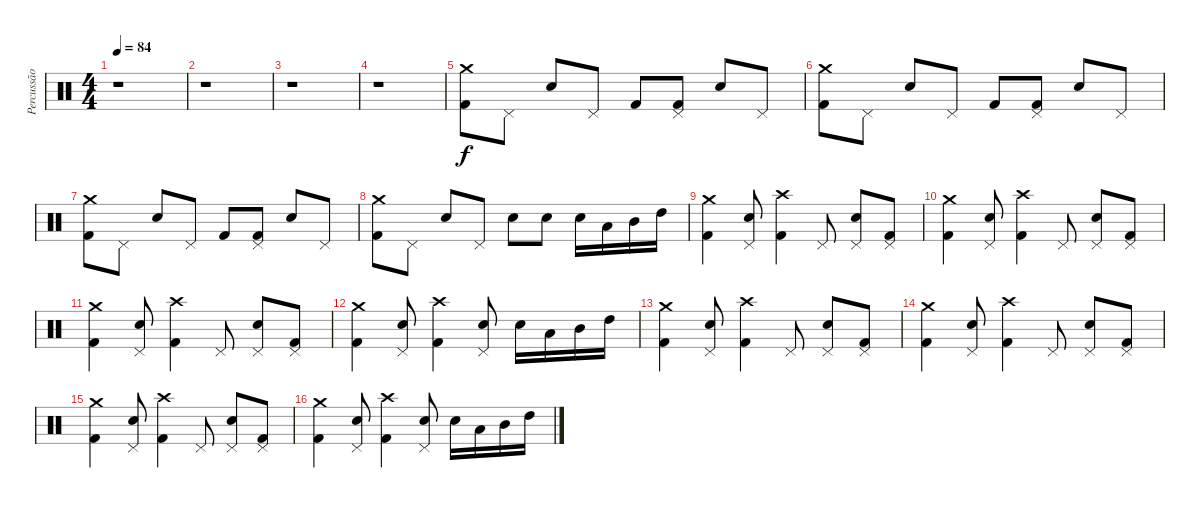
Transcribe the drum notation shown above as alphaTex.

\track ("Percussão" "Percussão") {instrument percussion}
\staff {score}
\articulation defaults
\ts (4 4)
\tempo 84
\clef neutral
\ks c
r.1{dy f} |
r.1 |
r.1 |
r.1 |
("Crash medium (hit)" "Kick (hit) 2").8 "Pedal Hi-Hat (hit)".8 "Snare (hit) 2".8 "Pedal Hi-Hat (hit)".8 "Kick (hit) 2".8 ("Pedal Hi-Hat (hit)" "Kick (hit) 2").8 "Snare (hit) 2".8 "Pedal Hi-Hat (hit)".8 |
("Crash medium (hit)" "Kick (hit) 2").8 "Pedal Hi-Hat (hit)".8 "Snare (hit) 2".8 "Pedal Hi-Hat (hit)".8 "Kick (hit) 2".8 ("Pedal Hi-Hat (hit)" "Kick (hit) 2").8 "Snare (hit) 2".8 "Pedal Hi-Hat (hit)".8 |
("Crash medium (hit)" "Kick (hit) 2").8 "Pedal Hi-Hat (hit)".8 "Snare (hit) 2".8 "Pedal Hi-Hat (hit)".8 "Kick (hit) 2".8 ("Pedal Hi-Hat (hit)" "Kick (hit) 2").8 "Snare (hit) 2".8 "Pedal Hi-Hat (hit)".8 |
("Crash medium (hit)" "Kick (hit) 2").8 "Pedal Hi-Hat (hit)".8 "Snare (hit) 2".8 "Pedal Hi-Hat (hit)".8 "Electric Snare (hit)".8 "Electric Snare (hit)".8 "Electric Snare (hit)".16 "Low Tom (hit)".16 "Mid Tom (hit)".16 "High Tom (hit)".16 |
("Crash medium (hit)" "Kick (hit) 2").4 ("Pedal Hi-Hat (hit)" "Snare (hit) 2").8 ("Crash high (hit)" "Kick (hit) 2").4 "Pedal Hi-Hat (hit)".8 ("Pedal Hi-Hat (hit)" "Snare (hit) 2").8 ("Pedal Hi-Hat (hit)" "Kick (hit) 2").8 |
("Crash medium (hit)" "Kick (hit) 2").4 ("Pedal Hi-Hat (hit)" "Snare (hit) 2").8 ("Crash high (hit)" "Kick (hit) 2").4 "Pedal Hi-Hat (hit)".8 ("Pedal Hi-Hat (hit)" "Snare (hit) 2").8 ("Pedal Hi-Hat (hit)" "Kick (hit) 2").8 |
("Crash medium (hit)" "Kick (hit) 2").4 ("Pedal Hi-Hat (hit)" "Snare (hit) 2").8 ("Crash high (hit)" "Kick (hit) 2").4 "Pedal Hi-Hat (hit)".8 ("Pedal Hi-Hat (hit)" "Snare (hit) 2").8 ("Pedal Hi-Hat (hit)" "Kick (hit) 2").8 |
("Crash medium (hit)" "Kick (hit) 2").4 ("Pedal Hi-Hat (hit)" "Snare (hit) 2").8 ("Crash high (hit)" "Kick (hit) 2").4 ("Pedal Hi-Hat (hit)" "Snare (hit) 2").8 "Snare (hit) 2".16 "Low Tom (hit)".16 "Mid Tom (hit)".16 "High Tom (hit)".16 |
("Crash medium (hit)" "Kick (hit) 2").4 ("Pedal Hi-Hat (hit)" "Snare (hit) 2").8 ("Crash high (hit)" "Kick (hit) 2").4 "Pedal Hi-Hat (hit)".8 ("Pedal Hi-Hat (hit)" "Snare (hit) 2").8 ("Pedal Hi-Hat (hit)" "Kick (hit) 2").8 |
("Crash medium (hit)" "Kick (hit) 2").4 ("Pedal Hi-Hat (hit)" "Snare (hit) 2").8 ("Crash high (hit)" "Kick (hit) 2").4 "Pedal Hi-Hat (hit)".8 ("Pedal Hi-Hat (hit)" "Snare (hit) 2").8 ("Pedal Hi-Hat (hit)" "Kick (hit) 2").8 |
("Crash medium (hit)" "Kick (hit) 2").4 ("Pedal Hi-Hat (hit)" "Snare (hit) 2").8 ("Crash high (hit)" "Kick (hit) 2").4 "Pedal Hi-Hat (hit)".8 ("Pedal Hi-Hat (hit)" "Snare (hit) 2").8 ("Pedal Hi-Hat (hit)" "Kick (hit) 2").8 |
("Crash medium (hit)" "Kick (hit) 2").4 ("Pedal Hi-Hat (hit)" "Snare (hit) 2").8 ("Crash high (hit)" "Kick (hit) 2").4 ("Pedal Hi-Hat (hit)" "Snare (hit) 2").8 "Snare (hit) 2".16 "Low Tom (hit)".16 "Mid Tom (hit)".16 "High Tom (hit)".16
